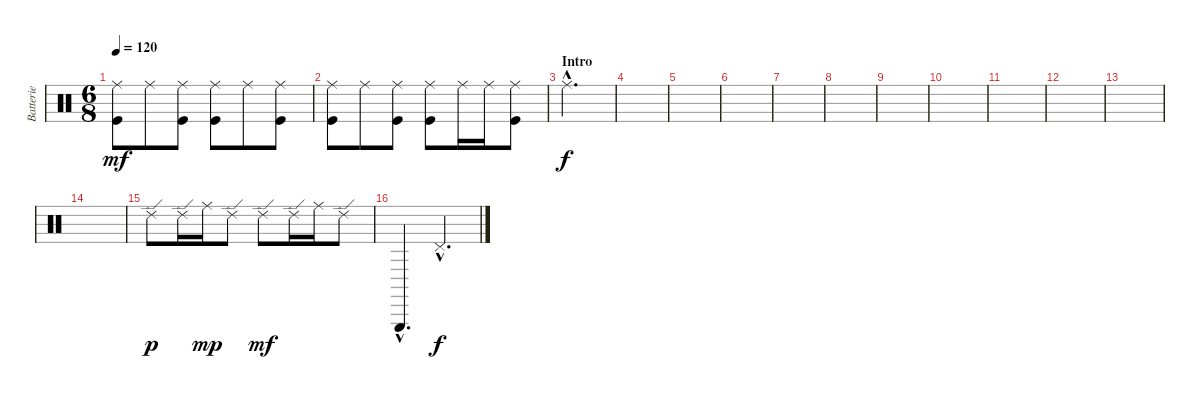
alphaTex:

\track ("Batterie" "Batterie") {instrument percussion}
\staff {score}
\articulation defaults
\ts (6 8)
\tempo 120
\clef neutral
\ks c
("Ride (middle)" "Kick (hit)").8{dy mf} "Ride (middle)".8 ("Ride (middle)" "Kick (hit)").8 ("Ride (middle)" "Kick (hit)").8 "Ride (middle)".8 ("Ride (middle)" "Kick (hit)").8 |
("Ride (middle)" "Kick (hit)").8 "Ride (middle)".8 ("Ride (middle)" "Kick (hit)").8 ("Ride (middle)" "Kick (hit)").8 "Ride (middle)".16 "Ride (middle)".16 ("Ride (middle)" "Kick (hit)").8 |
\section ("" "Intro")
"Ride (middle)"{hac}.2{d dy f} |
|
|
|
|
|
|
|
|
|
|
|
"Ride (edge) 2".8{dy p} "Ride (edge) 2".16 "Ride (middle)".16{dy mp} "Ride (edge) 2".8 "Ride (edge) 2".8{dy mf} "Ride (edge) 2".16 "Ride (middle)".16 "Ride (edge) 2".8 |
"Triangle (hit)"{hac}.4{d volume 10} "Pedal Hi-Hat (hit)"{hac}.4{d dy f}
